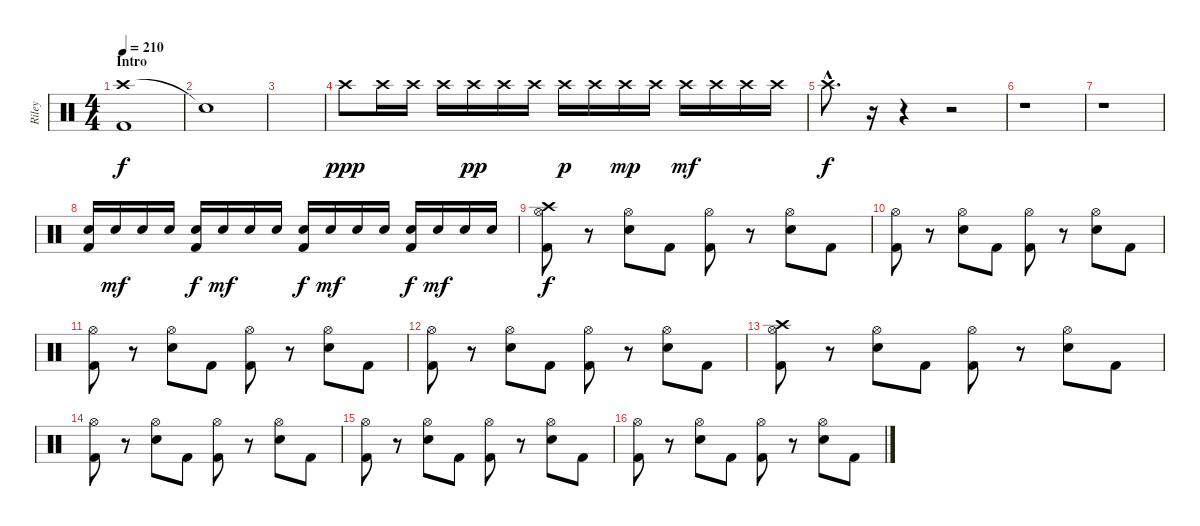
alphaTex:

\track ("Riley" "Riley") {instrument percussion}
\staff {score}
\articulation defaults
\ts (4 4)
\section ("" "Intro")
\tempo 210
\clef neutral
\ks c
("Crash high (hit)" "Kick (hit) 2").1{dy f} |
"Snare (hit)"{t}.1 |
|
"Crash high (hit)".8{dy ppp} "Crash high (hit)".16 "Crash high (hit)".16 "Crash high (hit)".16 "Crash high (hit)".16{dy pp} "Crash high (hit)".16 "Crash high (hit)".16 "Crash high (hit)".16{dy p} "Crash high (hit)".16 "Crash high (hit)".16{dy mp} "Crash high (hit)".16 "Crash high (hit)".16{dy mf} "Crash high (hit)".16 "Crash high (hit)".16 "Crash high (hit)".16 |
"Crash high (hit)"{hac}.8{d dy f} r.16 r.4 r.2 |
r.1 |
r.1 |
("Electric Snare (hit)" "Kick (hit) 2").16 "Electric Snare (hit)".16{dy mf} "Electric Snare (hit)".16 "Electric Snare (hit)".16 ("Electric Snare (hit)" "Kick (hit) 2").16{dy f} "Electric Snare (hit)".16{dy mf} "Electric Snare (hit)".16 "Electric Snare (hit)".16 ("Electric Snare (hit)" "Kick (hit) 2").16{dy f} "Electric Snare (hit)".16{dy mf} "Electric Snare (hit)".16 "Electric Snare (hit)".16 ("Electric Snare (hit)" "Kick (hit) 2").16{dy f} "Electric Snare (hit)".16{dy mf} "Electric Snare (hit)".16 "Electric Snare (hit)".16 |
("Crash high (hit)" "Hi-Hat (open)" "Kick (hit) 2").8{dy f} r.8 ("Hi-Hat (open)" "Electric Snare (hit)").8 "Kick (hit) 2".8 ("Hi-Hat (open)" "Kick (hit) 2").8 r.8 ("Hi-Hat (open)" "Electric Snare (hit)").8 "Kick (hit) 2".8 |
("Hi-Hat (open)" "Kick (hit) 2").8 r.8 ("Hi-Hat (open)" "Electric Snare (hit)").8 "Kick (hit) 2".8 ("Hi-Hat (open)" "Kick (hit) 2").8 r.8 ("Hi-Hat (open)" "Electric Snare (hit)").8 "Kick (hit) 2".8 |
("Hi-Hat (open)" "Kick (hit) 2").8 r.8 ("Hi-Hat (open)" "Electric Snare (hit)").8 "Kick (hit) 2".8 ("Hi-Hat (open)" "Kick (hit) 2").8 r.8 ("Hi-Hat (open)" "Electric Snare (hit)").8 "Kick (hit) 2".8 |
("Hi-Hat (open)" "Kick (hit) 2").8 r.8 ("Hi-Hat (open)" "Electric Snare (hit)").8 "Kick (hit) 2".8 ("Hi-Hat (open)" "Kick (hit) 2").8 r.8 ("Hi-Hat (open)" "Electric Snare (hit)").8 "Kick (hit) 2".8 |
("Crash high (hit)" "Hi-Hat (open)" "Kick (hit) 2").8 r.8 ("Hi-Hat (open)" "Electric Snare (hit)").8 "Kick (hit) 2".8 ("Hi-Hat (open)" "Kick (hit) 2").8 r.8 ("Hi-Hat (open)" "Electric Snare (hit)").8 "Kick (hit) 2".8 |
("Hi-Hat (open)" "Kick (hit) 2").8 r.8 ("Hi-Hat (open)" "Electric Snare (hit)").8 "Kick (hit) 2".8 ("Hi-Hat (open)" "Kick (hit) 2").8 r.8 ("Hi-Hat (open)" "Electric Snare (hit)").8 "Kick (hit) 2".8 |
("Hi-Hat (open)" "Kick (hit) 2").8 r.8 ("Hi-Hat (open)" "Electric Snare (hit)").8 "Kick (hit) 2".8 ("Hi-Hat (open)" "Kick (hit) 2").8 r.8 ("Hi-Hat (open)" "Electric Snare (hit)").8 "Kick (hit) 2".8 |
("Hi-Hat (open)" "Kick (hit) 2").8 r.8 ("Hi-Hat (open)" "Electric Snare (hit)").8 "Kick (hit) 2".8 ("Hi-Hat (open)" "Kick (hit) 2").8 r.8 ("Hi-Hat (open)" "Electric Snare (hit)").8 "Kick (hit) 2".8
